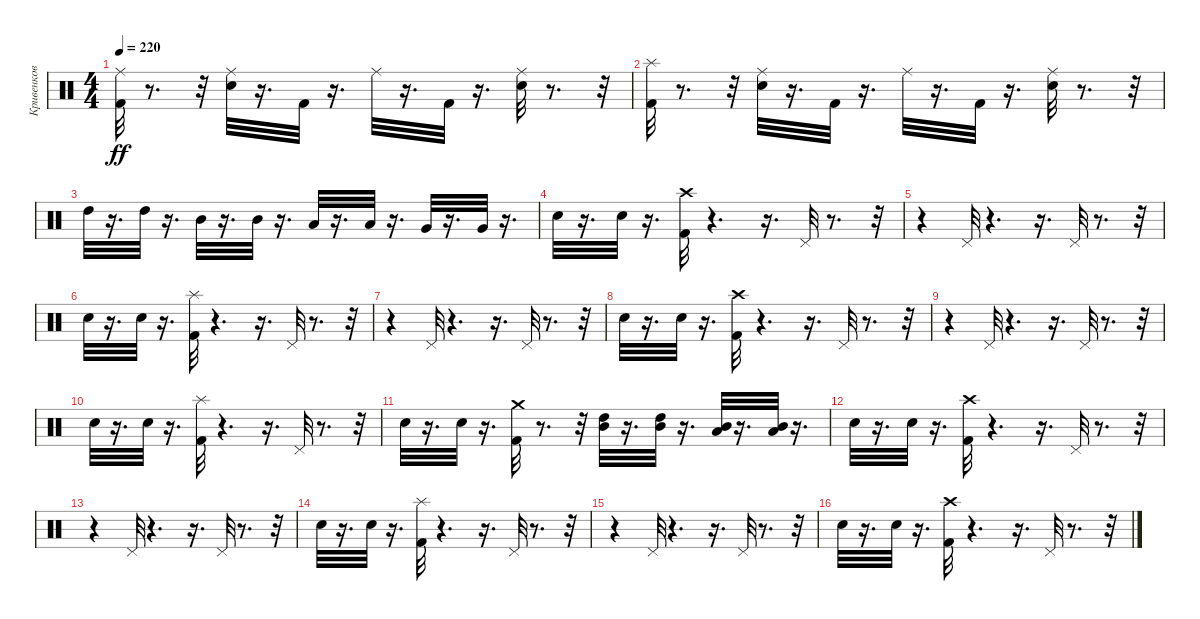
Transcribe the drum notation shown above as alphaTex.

\track ("Кривенков" "Кривенков") {instrument percussion}
\staff {score}
\articulation defaults
\ts (4 4)
\tempo 220
\clef neutral
\ks c
("Kick (hit) 2" "Ride (middle)").32{dy ff} r.8{d} r.32 ("Electric Snare (hit)" "Ride (middle)").32 r.16{d} "Kick (hit) 2".32 r.16{d} "Ride (middle)".32 r.16{d} "Kick (hit) 2".32 r.16{d} ("Electric Snare (hit)" "Ride (middle)").32 r.8{d} r.32 |
("Splash (hit)" "Kick (hit) 2").32 r.8{d} r.32 ("Ride (middle)" "Electric Snare (hit)").32 r.16{d} "Kick (hit) 2".32 r.16{d} "Ride (middle)".32 r.16{d} "Kick (hit) 2".32 r.16{d} ("Ride (middle)" "Electric Snare (hit)").32 r.8{d} r.32 |
"High Tom (hit)".32 r.16{d} "High Tom (hit)".32 r.16{d} "Mid Tom (hit)".32 r.16{d} "Mid Tom (hit)".32 r.16{d} "Low Tom (hit)".32 r.16{d} "Low Tom (hit)".32 r.16{d} "Very Low Tom (hit)".32 r.16{d} "Very Low Tom (hit)".32 r.16{d} |
"Electric Snare (hit)".32 r.16{d} "Electric Snare (hit)".32 r.16{d} ("Crash high (hit)" "Kick (hit) 2").32 r.4{d} r.16{d} "Pedal Hi-Hat (hit)".32 r.8{d} r.32 |
r.4 "Pedal Hi-Hat (hit)".32 r.4{d} r.16{d} "Pedal Hi-Hat (hit)".32 r.8{d} r.32 |
"Snare (hit) 2".32 r.16{d} "Snare (hit) 2".32 r.16{d} ("Splash (hit)" "Kick (hit) 2").32 r.4{d} r.16{d} "Pedal Hi-Hat (hit)".32 r.8{d} r.32 |
r.4 "Pedal Hi-Hat (hit)".32 r.4{d} r.16{d} "Pedal Hi-Hat (hit)".32 r.8{d} r.32 |
"Snare (hit) 2".32 r.16{d} "Snare (hit) 2".32 r.16{d} ("Crash high (hit)" "Kick (hit) 2").32 r.4{d} r.16{d} "Pedal Hi-Hat (hit)".32 r.8{d} r.32 |
r.4 "Pedal Hi-Hat (hit)".32 r.4{d} r.16{d} "Pedal Hi-Hat (hit)".32 r.8{d} r.32 |
"Electric Snare (hit)".32 r.16{d} "Electric Snare (hit)".32 r.16{d} ("Splash (hit)" "Kick (hit) 2").32 r.4{d} r.16{d} "Pedal Hi-Hat (hit)".32 r.8{d} r.32 |
"Electric Snare (hit)".32 r.16{d} "Electric Snare (hit)".32 r.16{d} ("Crash medium (hit)" "Kick (hit) 2").32 r.8{d} r.32 ("Mid Tom (hit)" "High Tom (hit)").32 r.16{d} ("Mid Tom (hit)" "High Tom (hit)").32 r.16{d} ("Low Tom (hit)" "Mid Tom (hit)").32 r.16{d} ("Mid Tom (hit)" "Low Tom (hit)").32 r.16{d} |
"Electric Snare (hit)".32 r.16{d} "Electric Snare (hit)".32 r.16{d} ("Crash high (hit)" "Kick (hit) 2").32 r.4{d} r.16{d} "Pedal Hi-Hat (hit)".32 r.8{d} r.32 |
r.4 "Pedal Hi-Hat (hit)".32 r.4{d} r.16{d} "Pedal Hi-Hat (hit)".32 r.8{d} r.32 |
"Electric Snare (hit)".32 r.16{d} "Electric Snare (hit)".32 r.16{d} ("Splash (hit)" "Kick (hit) 2").32 r.4{d} r.16{d} "Pedal Hi-Hat (hit)".32 r.8{d} r.32 |
r.4 "Pedal Hi-Hat (hit)".32 r.4{d} r.16{d} "Pedal Hi-Hat (hit)".32 r.8{d} r.32 |
"Electric Snare (hit)".32 r.16{d} "Electric Snare (hit)".32 r.16{d} ("Crash high (hit)" "Kick (hit) 2").32 r.4{d} r.16{d} "Pedal Hi-Hat (hit)".32 r.8{d} r.32
